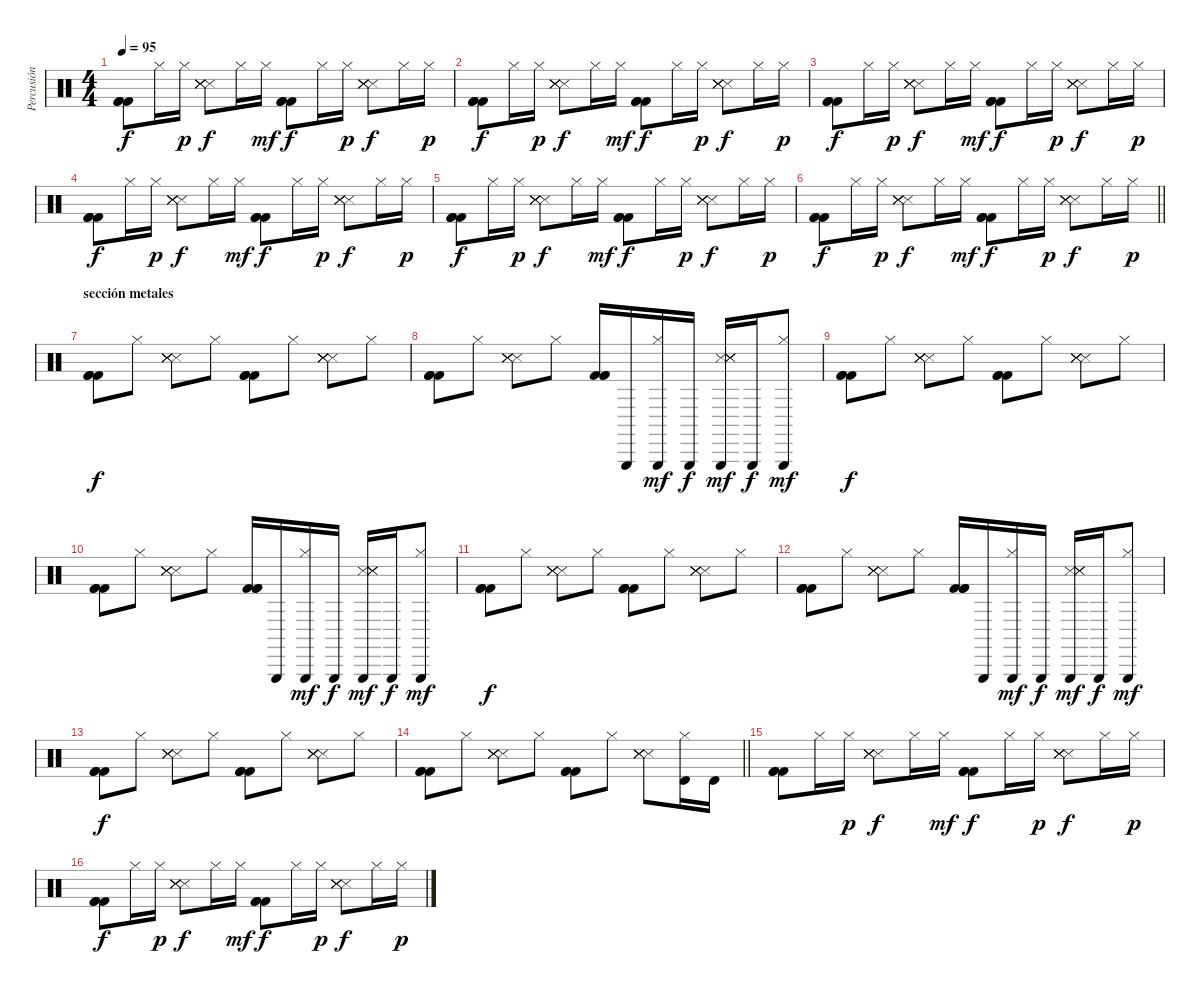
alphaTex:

\track ("Percusión" "Percusión") {instrument percussion}
\staff
\articulation defaults
\ts (4 4)
\tempo 95
\clef neutral
\ks c
("Kick (hit) 2" "Kick (hit) 2" "Kick (hit) 2").8{dy f} "Hi-Hat (closed)".16 "Hi-Hat (closed)".16{dy p} ("Metronome (hit)" "Metronome (hit)" "Metronome (hit)" "Metronome (hit)" "Metronome (hit)").8{dy f} "Hi-Hat (closed)".16 "Hi-Hat (closed)".16{dy mf} ("Kick (hit) 2" "Kick (hit) 2" "Kick (hit) 2").8{dy f} "Hi-Hat (closed)".16 "Hi-Hat (closed)".16{dy p} ("Metronome (hit)" "Metronome (hit)" "Metronome (hit)" "Metronome (hit)" "Metronome (hit)").8{dy f} "Hi-Hat (closed)".16 "Hi-Hat (closed)".16{dy p} |
("Kick (hit) 2" "Kick (hit) 2" "Kick (hit) 2").8{dy f} "Hi-Hat (closed)".16 "Hi-Hat (closed)".16{dy p} ("Metronome (hit)" "Metronome (hit)" "Metronome (hit)" "Metronome (hit)" "Metronome (hit)").8{dy f} "Hi-Hat (closed)".16 "Hi-Hat (closed)".16{dy mf} ("Kick (hit) 2" "Kick (hit) 2" "Kick (hit) 2").8{dy f} "Hi-Hat (closed)".16 "Hi-Hat (closed)".16{dy p} ("Metronome (hit)" "Metronome (hit)" "Metronome (hit)" "Metronome (hit)" "Metronome (hit)").8{dy f} "Hi-Hat (closed)".16 "Hi-Hat (closed)".16{dy p} |
("Kick (hit) 2" "Kick (hit) 2" "Kick (hit) 2").8{dy f} "Hi-Hat (closed)".16 "Hi-Hat (closed)".16{dy p} ("Metronome (hit)" "Metronome (hit)" "Metronome (hit)" "Metronome (hit)" "Metronome (hit)").8{dy f} "Hi-Hat (closed)".16 "Hi-Hat (closed)".16{dy mf} ("Kick (hit) 2" "Kick (hit) 2" "Kick (hit) 2").8{dy f} "Hi-Hat (closed)".16 "Hi-Hat (closed)".16{dy p} ("Metronome (hit)" "Metronome (hit)" "Metronome (hit)" "Metronome (hit)" "Metronome (hit)").8{dy f} "Hi-Hat (closed)".16 "Hi-Hat (closed)".16{dy p} |
("Kick (hit) 2" "Kick (hit) 2" "Kick (hit) 2").8{dy f} "Hi-Hat (closed)".16 "Hi-Hat (closed)".16{dy p} ("Metronome (hit)" "Metronome (hit)" "Metronome (hit)" "Metronome (hit)" "Metronome (hit)").8{dy f} "Hi-Hat (closed)".16 "Hi-Hat (closed)".16{dy mf} ("Kick (hit) 2" "Kick (hit) 2" "Kick (hit) 2").8{dy f} "Hi-Hat (closed)".16 "Hi-Hat (closed)".16{dy p} ("Metronome (hit)" "Metronome (hit)" "Metronome (hit)" "Metronome (hit)" "Metronome (hit)").8{dy f} "Hi-Hat (closed)".16 "Hi-Hat (closed)".16{dy p} |
("Kick (hit) 2" "Kick (hit) 2" "Kick (hit) 2").8{dy f} "Hi-Hat (closed)".16 "Hi-Hat (closed)".16{dy p} ("Metronome (hit)" "Metronome (hit)" "Metronome (hit)" "Metronome (hit)" "Metronome (hit)").8{dy f} "Hi-Hat (closed)".16 "Hi-Hat (closed)".16{dy mf} ("Kick (hit) 2" "Kick (hit) 2" "Kick (hit) 2").8{dy f} "Hi-Hat (closed)".16 "Hi-Hat (closed)".16{dy p} ("Metronome (hit)" "Metronome (hit)" "Metronome (hit)" "Metronome (hit)" "Metronome (hit)").8{dy f} "Hi-Hat (closed)".16 "Hi-Hat (closed)".16{dy p} |
\barLineRight lightlight
("Kick (hit) 2" "Kick (hit) 2" "Kick (hit) 2").8{dy f} "Hi-Hat (closed)".16 "Hi-Hat (closed)".16{dy p} ("Metronome (hit)" "Metronome (hit)" "Metronome (hit)" "Metronome (hit)" "Metronome (hit)").8{dy f} "Hi-Hat (closed)".16 "Hi-Hat (closed)".16{dy mf} ("Kick (hit) 2" "Kick (hit) 2" "Kick (hit) 2").8{dy f} "Hi-Hat (closed)".16 "Hi-Hat (closed)".16{dy p} ("Metronome (hit)" "Metronome (hit)" "Metronome (hit)" "Metronome (hit)" "Metronome (hit)").8{dy f} "Hi-Hat (closed)".16 "Hi-Hat (closed)".16{dy p} |
\section ("" "sección metales")
("Kick (hit) 2" "Kick (hit) 2" "Kick (hit) 2").8{dy f} "Hi-Hat (closed)".8 ("Metronome (hit)" "Metronome (hit)" "Metronome (hit)" "Metronome (hit)" "Metronome (hit)").8 "Hi-Hat (closed)".8 ("Kick (hit) 2" "Kick (hit) 2" "Kick (hit) 2").8 "Hi-Hat (closed)".8 ("Metronome (hit)" "Metronome (hit)" "Metronome (hit)" "Metronome (hit)" "Metronome (hit)").8 "Hi-Hat (closed)".8 |
("Kick (hit) 2" "Kick (hit) 2" "Kick (hit) 2").8 "Hi-Hat (closed)".8 ("Metronome (hit)" "Metronome (hit)" "Metronome (hit)" "Metronome (hit)" "Metronome (hit)").8 "Hi-Hat (closed)".8 ("Kick (hit) 2" "Kick (hit) 2" "Kick (hit) 2").16 "Triangle (hit)".16 ("Triangle (hit)" "Hi-Hat (closed)").16{dy mf} "Triangle (hit)".16{dy f} ("Metronome (hit)" "Triangle (hit)" "Metronome (hit)" "Metronome (hit)" "Metronome (hit)").16{dy mf} "Triangle (hit)".16{dy f} ("Triangle (hit)" "Hi-Hat (closed)").8{dy mf} |
("Kick (hit) 2" "Kick (hit) 2" "Kick (hit) 2").8{dy f} "Hi-Hat (closed)".8 ("Metronome (hit)" "Metronome (hit)" "Metronome (hit)" "Metronome (hit)" "Metronome (hit)").8 "Hi-Hat (closed)".8 ("Kick (hit) 2" "Kick (hit) 2" "Kick (hit) 2").8 "Hi-Hat (closed)".8 ("Metronome (hit)" "Metronome (hit)" "Metronome (hit)" "Metronome (hit)" "Metronome (hit)").8 "Hi-Hat (closed)".8 |
("Kick (hit) 2" "Kick (hit) 2" "Kick (hit) 2").8 "Hi-Hat (closed)".8 ("Metronome (hit)" "Metronome (hit)" "Metronome (hit)" "Metronome (hit)" "Metronome (hit)").8 "Hi-Hat (closed)".8 ("Kick (hit) 2" "Kick (hit) 2" "Kick (hit) 2").16 "Triangle (hit)".16 ("Triangle (hit)" "Hi-Hat (closed)").16{dy mf} "Triangle (hit)".16{dy f} ("Metronome (hit)" "Triangle (hit)" "Metronome (hit)" "Metronome (hit)" "Metronome (hit)").16{dy mf} "Triangle (hit)".16{dy f} ("Triangle (hit)" "Hi-Hat (closed)").8{dy mf} |
("Kick (hit) 2" "Kick (hit) 2" "Kick (hit) 2").8{dy f} "Hi-Hat (closed)".8 ("Metronome (hit)" "Metronome (hit)" "Metronome (hit)" "Metronome (hit)" "Metronome (hit)").8 "Hi-Hat (closed)".8 ("Kick (hit) 2" "Kick (hit) 2" "Kick (hit) 2").8 "Hi-Hat (closed)".8 ("Metronome (hit)" "Metronome (hit)" "Metronome (hit)" "Metronome (hit)" "Metronome (hit)").8 "Hi-Hat (closed)".8 |
("Kick (hit) 2" "Kick (hit) 2" "Kick (hit) 2").8 "Hi-Hat (closed)".8 ("Metronome (hit)" "Metronome (hit)" "Metronome (hit)" "Metronome (hit)" "Metronome (hit)").8 "Hi-Hat (closed)".8 ("Kick (hit) 2" "Kick (hit) 2" "Kick (hit) 2").16 "Triangle (hit)".16 ("Triangle (hit)" "Hi-Hat (closed)").16{dy mf} "Triangle (hit)".16{dy f} ("Metronome (hit)" "Triangle (hit)" "Metronome (hit)" "Metronome (hit)" "Metronome (hit)").16{dy mf} "Triangle (hit)".16{dy f} ("Triangle (hit)" "Hi-Hat (closed)").8{dy mf} |
("Kick (hit) 2" "Kick (hit) 2" "Kick (hit) 2").8{dy f} "Hi-Hat (closed)".8 ("Metronome (hit)" "Metronome (hit)" "Metronome (hit)" "Metronome (hit)" "Metronome (hit)").8 "Hi-Hat (closed)".8 ("Kick (hit) 2" "Kick (hit) 2" "Kick (hit) 2").8 "Hi-Hat (closed)".8 ("Metronome (hit)" "Metronome (hit)" "Metronome (hit)" "Metronome (hit)" "Metronome (hit)").8 "Hi-Hat (closed)".8 |
\barLineRight lightlight
("Kick (hit) 2" "Kick (hit) 2" "Kick (hit) 2").8 "Hi-Hat (closed)".8 ("Metronome (hit)" "Metronome (hit)" "Metronome (hit)" "Metronome (hit)" "Metronome (hit)").8 "Hi-Hat (closed)".8 ("Kick (hit) 2" "Kick (hit) 2" "Kick (hit) 2").8 "Hi-Hat (closed)".8 ("Metronome (hit)" "Metronome (hit)" "Metronome (hit)" "Metronome (hit)" "Metronome (hit)").8 ("Hi-Hat (closed)" "Timbale high (hit)").16 "Timbale high (hit)".16 |
("Kick (hit) 2" "Kick (hit) 2" "Kick (hit) 2").8 "Hi-Hat (closed)".16 "Hi-Hat (closed)".16{dy p} ("Metronome (hit)" "Metronome (hit)" "Metronome (hit)" "Metronome (hit)" "Metronome (hit)").8{dy f} "Hi-Hat (closed)".16 "Hi-Hat (closed)".16{dy mf} ("Kick (hit) 2" "Kick (hit) 2" "Kick (hit) 2").8{dy f} "Hi-Hat (closed)".16 "Hi-Hat (closed)".16{dy p} ("Metronome (hit)" "Metronome (hit)" "Metronome (hit)" "Metronome (hit)" "Metronome (hit)").8{dy f} "Hi-Hat (closed)".16 "Hi-Hat (closed)".16{dy p} |
("Kick (hit) 2" "Kick (hit) 2" "Kick (hit) 2").8{dy f} "Hi-Hat (closed)".16 "Hi-Hat (closed)".16{dy p} ("Metronome (hit)" "Metronome (hit)" "Metronome (hit)" "Metronome (hit)" "Metronome (hit)").8{dy f} "Hi-Hat (closed)".16 "Hi-Hat (closed)".16{dy mf} ("Kick (hit) 2" "Kick (hit) 2" "Kick (hit) 2").8{dy f} "Hi-Hat (closed)".16 "Hi-Hat (closed)".16{dy p} ("Metronome (hit)" "Metronome (hit)" "Metronome (hit)" "Metronome (hit)" "Metronome (hit)").8{dy f} "Hi-Hat (closed)".16 "Hi-Hat (closed)".16{dy p}
